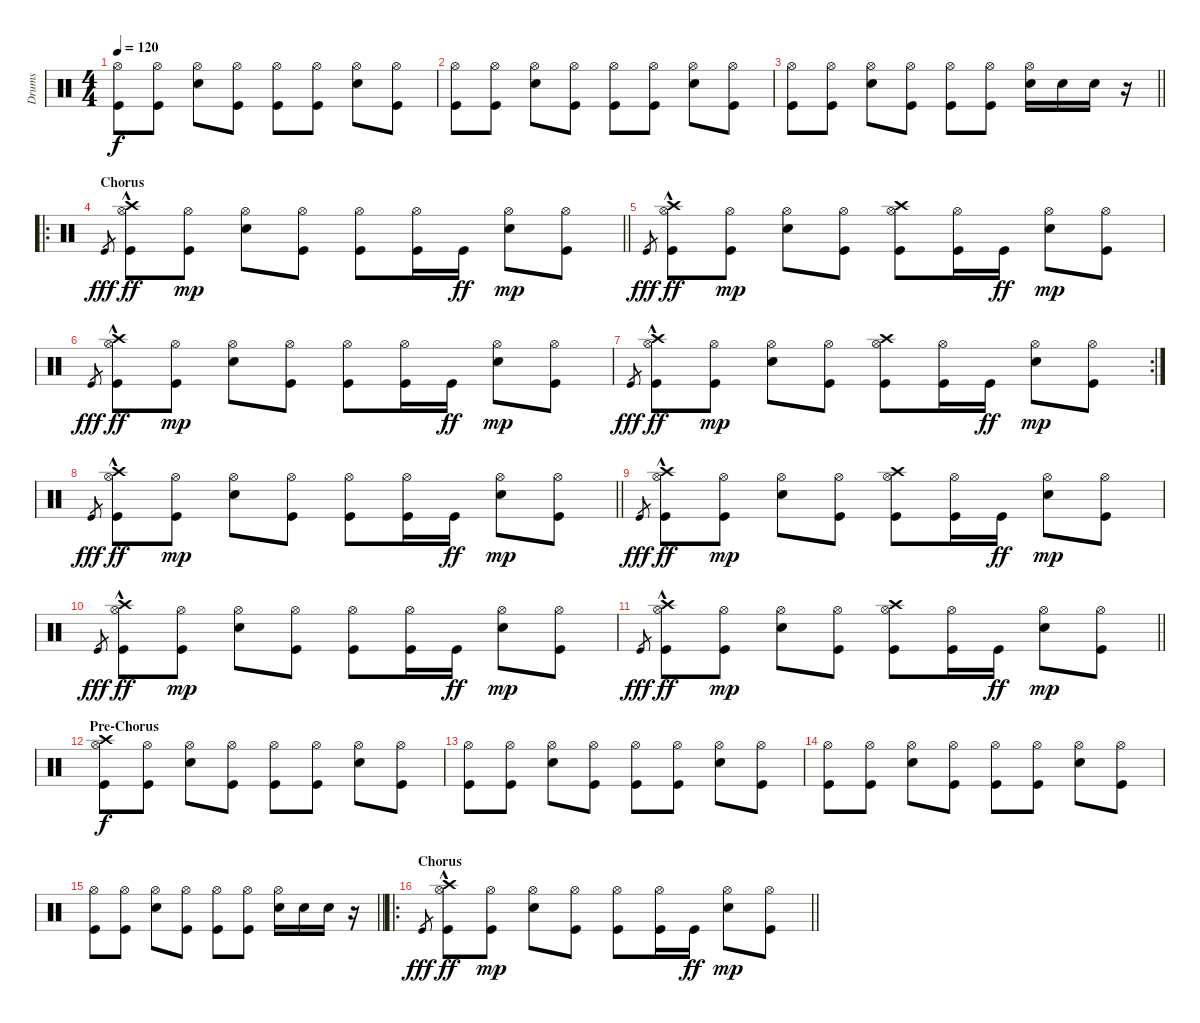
\track ("Drums" "Drums") {instrument percussion}
\staff {score}
\articulation defaults
\ts (4 4)
\tempo 120
\clef neutral
\ks c
("Kick (hit)" "Hi-Hat (open)").8{dy f} ("Kick (hit)" "Hi-Hat (open)").8 ("Electric Snare (hit)" "Hi-Hat (open)").8 ("Kick (hit)" "Hi-Hat (open)").8 ("Kick (hit)" "Hi-Hat (open)").8 ("Kick (hit)" "Hi-Hat (open)").8 ("Electric Snare (hit)" "Hi-Hat (open)").8 ("Kick (hit)" "Hi-Hat (open)").8 |
("Kick (hit)" "Hi-Hat (open)").8 ("Kick (hit)" "Hi-Hat (open)").8 ("Electric Snare (hit)" "Hi-Hat (open)").8 ("Kick (hit)" "Hi-Hat (open)").8 ("Kick (hit)" "Hi-Hat (open)").8 ("Kick (hit)" "Hi-Hat (open)").8 ("Electric Snare (hit)" "Hi-Hat (open)").8 ("Kick (hit)" "Hi-Hat (open)").8 |
\barLineRight lightlight
("Kick (hit)" "Hi-Hat (open)").8 ("Kick (hit)" "Hi-Hat (open)").8 ("Electric Snare (hit)" "Hi-Hat (open)").8 ("Kick (hit)" "Hi-Hat (open)").8 ("Kick (hit)" "Hi-Hat (open)").8 ("Kick (hit)" "Hi-Hat (open)").8 ("Electric Snare (hit)" "Hi-Hat (open)").16 "Electric Snare (hit)".16 "Electric Snare (hit)".16 r.16 |
\ro
\section ("" "Chorus")
\barLineRight lightlight "Kick (hit)".8{gr dy fff}
("Kick (hit)"{hac} "Hi-Hat (open)" "Crash high (hit)").8{dy ff} ("Kick (hit)" "Hi-Hat (open)").8{dy mp} ("Electric Snare (hit)" "Hi-Hat (open)").8 ("Kick (hit)" "Hi-Hat (open)").8 ("Kick (hit)" "Hi-Hat (open)").8 ("Kick (hit)" "Hi-Hat (open)").16 "Kick (hit)".16{dy ff} ("Electric Snare (hit)" "Hi-Hat (open)").8{dy mp} ("Kick (hit)" "Hi-Hat (open)").8 |
\section ("" "")
"Kick (hit)".8{gr dy fff} ("Kick (hit)"{hac} "Hi-Hat (open)" "Crash high (hit)").8{dy ff} ("Kick (hit)" "Hi-Hat (open)").8{dy mp} ("Electric Snare (hit)" "Hi-Hat (open)").8 ("Kick (hit)" "Hi-Hat (open)").8 ("Kick (hit)" "Hi-Hat (open)" "Crash high (hit)").8 ("Kick (hit)" "Hi-Hat (open)").16 "Kick (hit)".16{dy ff} ("Electric Snare (hit)" "Hi-Hat (open)").8{dy mp} ("Kick (hit)" "Hi-Hat (open)").8 |
"Kick (hit)".8{gr dy fff} ("Kick (hit)"{hac} "Hi-Hat (open)" "Crash high (hit)").8{dy ff} ("Kick (hit)" "Hi-Hat (open)").8{dy mp} ("Electric Snare (hit)" "Hi-Hat (open)").8 ("Kick (hit)" "Hi-Hat (open)").8 ("Kick (hit)" "Hi-Hat (open)").8 ("Kick (hit)" "Hi-Hat (open)").16 "Kick (hit)".16{dy ff} ("Electric Snare (hit)" "Hi-Hat (open)").8{dy mp} ("Kick (hit)" "Hi-Hat (open)").8 |
\rc 2 "Kick (hit)".8{gr dy fff}
("Kick (hit)"{hac} "Hi-Hat (open)" "Crash high (hit)").8{dy ff} ("Kick (hit)" "Hi-Hat (open)").8{dy mp} ("Electric Snare (hit)" "Hi-Hat (open)").8 ("Kick (hit)" "Hi-Hat (open)").8 ("Kick (hit)" "Hi-Hat (open)" "Crash high (hit)").8 ("Kick (hit)" "Hi-Hat (open)").16 "Kick (hit)".16{dy ff} ("Electric Snare (hit)" "Hi-Hat (open)").8{dy mp} ("Kick (hit)" "Hi-Hat (open)").8 |
\barLineRight lightlight "Kick (hit)".8{gr dy fff}
("Kick (hit)"{hac} "Hi-Hat (open)" "Crash high (hit)").8{dy ff} ("Kick (hit)" "Hi-Hat (open)").8{dy mp} ("Electric Snare (hit)" "Hi-Hat (open)").8 ("Kick (hit)" "Hi-Hat (open)").8 ("Kick (hit)" "Hi-Hat (open)").8 ("Kick (hit)" "Hi-Hat (open)").16 "Kick (hit)".16{dy ff} ("Electric Snare (hit)" "Hi-Hat (open)").8{dy mp} ("Kick (hit)" "Hi-Hat (open)").8 |
"Kick (hit)".8{gr dy fff} ("Kick (hit)"{hac} "Hi-Hat (open)" "Crash high (hit)").8{dy ff} ("Kick (hit)" "Hi-Hat (open)").8{dy mp} ("Electric Snare (hit)" "Hi-Hat (open)").8 ("Kick (hit)" "Hi-Hat (open)").8 ("Kick (hit)" "Hi-Hat (open)" "Crash high (hit)").8 ("Kick (hit)" "Hi-Hat (open)").16 "Kick (hit)".16{dy ff} ("Electric Snare (hit)" "Hi-Hat (open)").8{dy mp} ("Kick (hit)" "Hi-Hat (open)").8 |
"Kick (hit)".8{gr dy fff} ("Kick (hit)"{hac} "Hi-Hat (open)" "Crash high (hit)").8{dy ff} ("Kick (hit)" "Hi-Hat (open)").8{dy mp} ("Electric Snare (hit)" "Hi-Hat (open)").8 ("Kick (hit)" "Hi-Hat (open)").8 ("Kick (hit)" "Hi-Hat (open)").8 ("Kick (hit)" "Hi-Hat (open)").16 "Kick (hit)".16{dy ff} ("Electric Snare (hit)" "Hi-Hat (open)").8{dy mp} ("Kick (hit)" "Hi-Hat (open)").8 |
\barLineRight lightlight "Kick (hit)".8{gr dy fff}
("Kick (hit)"{hac} "Hi-Hat (open)" "Crash high (hit)").8{dy ff} ("Kick (hit)" "Hi-Hat (open)").8{dy mp} ("Electric Snare (hit)" "Hi-Hat (open)").8 ("Kick (hit)" "Hi-Hat (open)").8 ("Kick (hit)" "Hi-Hat (open)" "Crash high (hit)").8 ("Kick (hit)" "Hi-Hat (open)").16 "Kick (hit)".16{dy ff} ("Electric Snare (hit)" "Hi-Hat (open)").8{dy mp} ("Kick (hit)" "Hi-Hat (open)").8 |
\section ("" "Pre-Chorus")
("Kick (hit)" "Hi-Hat (open)" "Crash high (hit)").8{dy f} ("Kick (hit)" "Hi-Hat (open)").8 ("Electric Snare (hit)" "Hi-Hat (open)").8 ("Kick (hit)" "Hi-Hat (open)").8 ("Kick (hit)" "Hi-Hat (open)").8 ("Kick (hit)" "Hi-Hat (open)").8 ("Electric Snare (hit)" "Hi-Hat (open)").8 ("Kick (hit)" "Hi-Hat (open)").8 |
("Kick (hit)" "Hi-Hat (open)").8 ("Kick (hit)" "Hi-Hat (open)").8 ("Electric Snare (hit)" "Hi-Hat (open)").8 ("Kick (hit)" "Hi-Hat (open)").8 ("Kick (hit)" "Hi-Hat (open)").8 ("Kick (hit)" "Hi-Hat (open)").8 ("Electric Snare (hit)" "Hi-Hat (open)").8 ("Kick (hit)" "Hi-Hat (open)").8 |
("Kick (hit)" "Hi-Hat (open)").8 ("Kick (hit)" "Hi-Hat (open)").8 ("Electric Snare (hit)" "Hi-Hat (open)").8 ("Kick (hit)" "Hi-Hat (open)").8 ("Kick (hit)" "Hi-Hat (open)").8 ("Kick (hit)" "Hi-Hat (open)").8 ("Electric Snare (hit)" "Hi-Hat (open)").8 ("Kick (hit)" "Hi-Hat (open)").8 |
\barLineRight lightlight
("Kick (hit)" "Hi-Hat (open)").8 ("Kick (hit)" "Hi-Hat (open)").8 ("Electric Snare (hit)" "Hi-Hat (open)").8 ("Kick (hit)" "Hi-Hat (open)").8 ("Kick (hit)" "Hi-Hat (open)").8 ("Kick (hit)" "Hi-Hat (open)").8 ("Electric Snare (hit)" "Hi-Hat (open)").16 "Electric Snare (hit)".16 "Electric Snare (hit)".16 r.16 |
\ro
\section ("" "Chorus")
\barLineRight lightlight "Kick (hit)".8{gr dy fff}
("Kick (hit)"{hac} "Hi-Hat (open)" "Crash high (hit)").8{dy ff} ("Kick (hit)" "Hi-Hat (open)").8{dy mp} ("Electric Snare (hit)" "Hi-Hat (open)").8 ("Kick (hit)" "Hi-Hat (open)").8 ("Kick (hit)" "Hi-Hat (open)").8 ("Kick (hit)" "Hi-Hat (open)").16 "Kick (hit)".16{dy ff} ("Electric Snare (hit)" "Hi-Hat (open)").8{dy mp} ("Kick (hit)" "Hi-Hat (open)").8
